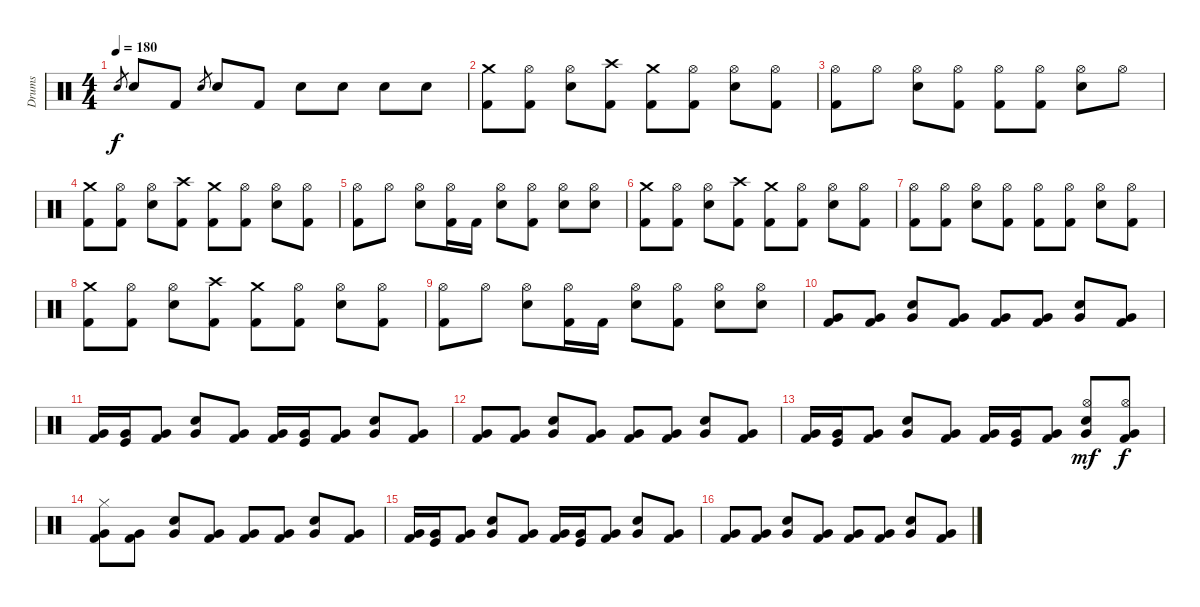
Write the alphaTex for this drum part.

\track ("Drums" "Drums") {instrument percussion}
\staff {score}
\articulation defaults
\ts (4 4)
\tempo 180
\clef neutral
\ks c "Electric Snare (hit)".8{gr dy f} "Electric Snare (hit)".8 "Kick (hit) 2".8 "Electric Snare (hit)".8{gr} "Electric Snare (hit)".8 "Kick (hit) 2".8 "Electric Snare (hit)".8 "Electric Snare (hit)".8 "Electric Snare (hit)".8 "Electric Snare (hit)".8
|
("Crash medium (hit)" "Kick (hit) 2").8 ("Hi-Hat (open)" "Kick (hit) 2").8 ("Hi-Hat (open)" "Electric Snare (hit)").8 ("Crash high (hit)" "Kick (hit) 2").8 ("Crash medium (hit)" "Kick (hit) 2").8 ("Hi-Hat (open)" "Kick (hit) 2").8 ("Hi-Hat (open)" "Electric Snare (hit)").8 ("Hi-Hat (open)" "Kick (hit) 2").8 |
("Hi-Hat (open)" "Kick (hit) 2").8 "Hi-Hat (open)".8 ("Hi-Hat (open)" "Electric Snare (hit)").8 ("Hi-Hat (open)" "Kick (hit) 2").8 ("Hi-Hat (open)" "Kick (hit) 2").8 ("Hi-Hat (open)" "Kick (hit) 2").8 ("Hi-Hat (open)" "Electric Snare (hit)").8 "Hi-Hat (open)".8 |
("Crash medium (hit)" "Kick (hit) 2").8 ("Hi-Hat (open)" "Kick (hit) 2").8 ("Hi-Hat (open)" "Electric Snare (hit)").8 ("Crash high (hit)" "Kick (hit) 2").8 ("Crash medium (hit)" "Kick (hit) 2").8 ("Hi-Hat (open)" "Kick (hit) 2").8 ("Hi-Hat (open)" "Electric Snare (hit)").8 ("Hi-Hat (open)" "Kick (hit) 2").8 |
("Hi-Hat (open)" "Kick (hit) 2").8 "Hi-Hat (open)".8 ("Hi-Hat (open)" "Electric Snare (hit)").8 ("Hi-Hat (open)" "Kick (hit) 2").16 "Kick (hit) 2".16 ("Hi-Hat (open)" "Electric Snare (hit)").8 ("Hi-Hat (open)" "Kick (hit) 2").8 ("Hi-Hat (open)" "Electric Snare (hit)").8 ("Hi-Hat (open)" "Electric Snare (hit)").8 |
("Crash medium (hit)" "Kick (hit) 2").8 ("Hi-Hat (open)" "Kick (hit) 2").8 ("Hi-Hat (open)" "Electric Snare (hit)").8 ("Crash high (hit)" "Kick (hit) 2").8 ("Crash medium (hit)" "Kick (hit) 2").8 ("Hi-Hat (open)" "Kick (hit) 2").8 ("Hi-Hat (open)" "Electric Snare (hit)").8 ("Hi-Hat (open)" "Kick (hit) 2").8 |
("Hi-Hat (open)" "Kick (hit) 2").8 ("Hi-Hat (open)" "Kick (hit) 2").8 ("Hi-Hat (open)" "Electric Snare (hit)").8 ("Hi-Hat (open)" "Kick (hit) 2").8 ("Hi-Hat (open)" "Kick (hit) 2").8 ("Hi-Hat (open)" "Kick (hit) 2").8 ("Hi-Hat (open)" "Electric Snare (hit)").8 ("Hi-Hat (open)" "Kick (hit) 2").8 |
("Crash medium (hit)" "Kick (hit) 2").8 ("Hi-Hat (open)" "Kick (hit) 2").8 ("Hi-Hat (open)" "Electric Snare (hit)").8 ("Crash high (hit)" "Kick (hit) 2").8 ("Crash medium (hit)" "Kick (hit) 2").8 ("Hi-Hat (open)" "Kick (hit) 2").8 ("Hi-Hat (open)" "Electric Snare (hit)").8 ("Hi-Hat (open)" "Kick (hit) 2").8 |
("Hi-Hat (open)" "Kick (hit) 2").8 "Hi-Hat (open)".8 ("Hi-Hat (open)" "Electric Snare (hit)").8 ("Hi-Hat (open)" "Kick (hit) 2").16 "Kick (hit) 2".16 ("Hi-Hat (open)" "Electric Snare (hit)").8 ("Hi-Hat (open)" "Kick (hit) 2").8 ("Hi-Hat (open)" "Electric Snare (hit)").8 ("Hi-Hat (open)" "Electric Snare (hit)").8 |
("Very Low Tom (hit)" "Kick (hit) 2").8 ("Very Low Tom (hit)" "Kick (hit) 2").8 ("Electric Snare (hit)" "Very Low Tom (hit)").8 ("Very Low Tom (hit)" "Kick (hit) 2").8 ("Very Low Tom (hit)" "Kick (hit) 2").8 ("Very Low Tom (hit)" "Kick (hit) 2").8 ("Electric Snare (hit)" "Very Low Tom (hit)").8 ("Very Low Tom (hit)" "Kick (hit) 2").8 |
("Very Low Tom (hit)" "Kick (hit) 2").16 ("Very Low Tom (hit)" "Kick (hit)").16 ("Very Low Tom (hit)" "Kick (hit) 2").8 ("Electric Snare (hit)" "Very Low Tom (hit)").8 ("Very Low Tom (hit)" "Kick (hit) 2").8 ("Very Low Tom (hit)" "Kick (hit) 2").16 ("Very Low Tom (hit)" "Kick (hit)").16 ("Very Low Tom (hit)" "Kick (hit) 2").8 ("Electric Snare (hit)" "Very Low Tom (hit)").8 ("Very Low Tom (hit)" "Kick (hit) 2").8 |
("Very Low Tom (hit)" "Kick (hit) 2").8 ("Very Low Tom (hit)" "Kick (hit) 2").8 ("Electric Snare (hit)" "Very Low Tom (hit)").8 ("Very Low Tom (hit)" "Kick (hit) 2").8 ("Very Low Tom (hit)" "Kick (hit) 2").8 ("Very Low Tom (hit)" "Kick (hit) 2").8 ("Electric Snare (hit)" "Very Low Tom (hit)").8 ("Very Low Tom (hit)" "Kick (hit) 2").8 |
("Very Low Tom (hit)" "Kick (hit) 2").16 ("Very Low Tom (hit)" "Kick (hit)").16 ("Very Low Tom (hit)" "Kick (hit) 2").8 ("Electric Snare (hit)" "Very Low Tom (hit)").8 ("Very Low Tom (hit)" "Kick (hit) 2").8 ("Very Low Tom (hit)" "Kick (hit) 2").16 ("Very Low Tom (hit)" "Kick (hit)").16 ("Very Low Tom (hit)" "Kick (hit) 2").8 ("Hi-Hat (open)" "Electric Snare (hit)" "Very Low Tom (hit)").8{dy mf} ("Hi-Hat (open)" "Very Low Tom (hit)" "Kick (hit) 2").8{dy f} |
("Hi-Hat (closed)" "Very Low Tom (hit)" "Kick (hit) 2").8 ("Very Low Tom (hit)" "Kick (hit) 2").8 ("Electric Snare (hit)" "Very Low Tom (hit)").8 ("Very Low Tom (hit)" "Kick (hit) 2").8 ("Very Low Tom (hit)" "Kick (hit) 2").8 ("Very Low Tom (hit)" "Kick (hit) 2").8 ("Electric Snare (hit)" "Very Low Tom (hit)").8 ("Very Low Tom (hit)" "Kick (hit) 2").8 |
("Very Low Tom (hit)" "Kick (hit) 2").16 ("Very Low Tom (hit)" "Kick (hit)").16 ("Very Low Tom (hit)" "Kick (hit) 2").8 ("Electric Snare (hit)" "Very Low Tom (hit)").8 ("Very Low Tom (hit)" "Kick (hit) 2").8 ("Very Low Tom (hit)" "Kick (hit) 2").16 ("Very Low Tom (hit)" "Kick (hit)").16 ("Very Low Tom (hit)" "Kick (hit) 2").8 ("Electric Snare (hit)" "Very Low Tom (hit)").8 ("Very Low Tom (hit)" "Kick (hit) 2").8 |
("Very Low Tom (hit)" "Kick (hit) 2").8 ("Very Low Tom (hit)" "Kick (hit) 2").8 ("Electric Snare (hit)" "Very Low Tom (hit)").8 ("Very Low Tom (hit)" "Kick (hit) 2").8 ("Very Low Tom (hit)" "Kick (hit) 2").8 ("Very Low Tom (hit)" "Kick (hit) 2").8 ("Electric Snare (hit)" "Very Low Tom (hit)").8 ("Very Low Tom (hit)" "Kick (hit) 2").8
